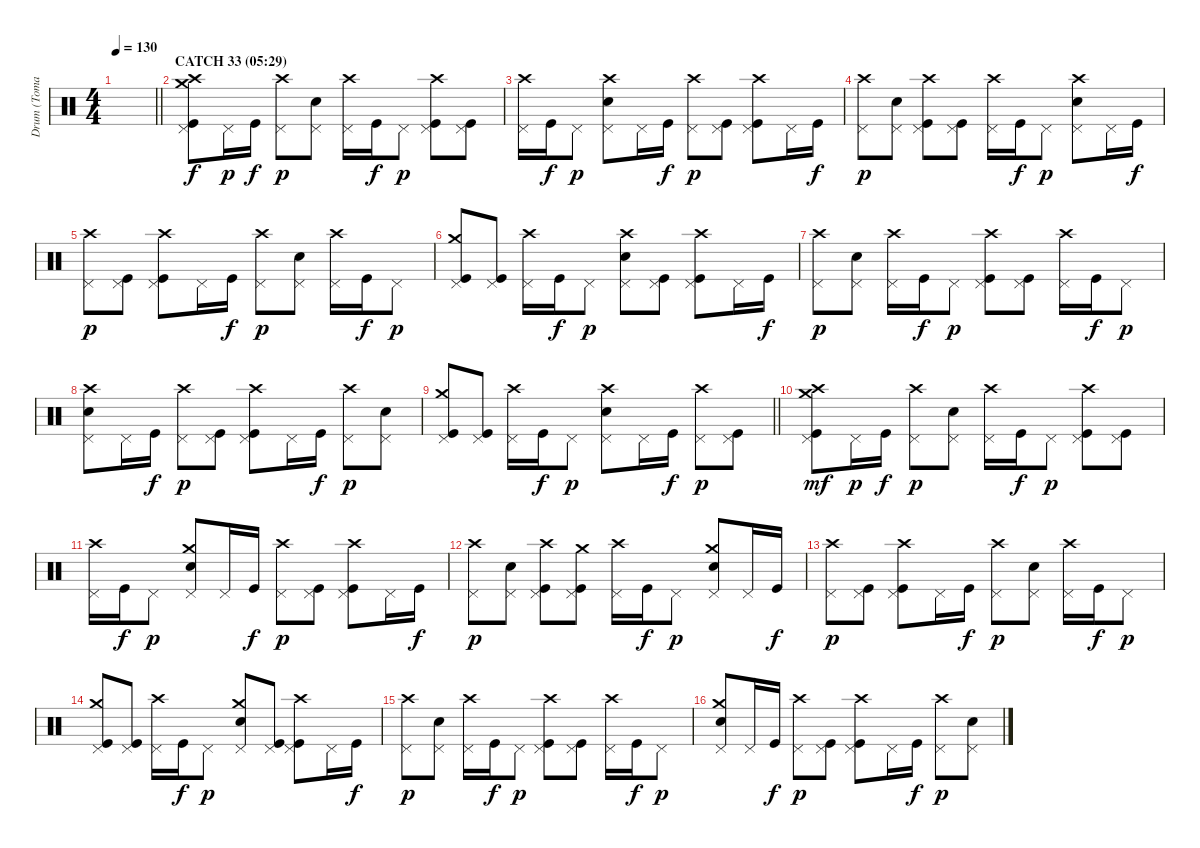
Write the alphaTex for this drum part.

\track ("Drum (Tomas Haake)" "Drum (Toma") {instrument percussion}
\staff {score}
\articulation defaults
\ts (4 4)
\tempo 130
\clef neutral
\barLineRight lightlight
\ks c
|
\section ("" "CATCH 33 (05:29)")
("Crash high (hit)" "Pedal Hi-Hat (hit)" "Crash medium (hit)" "Kick (hit)").8 "Pedal Hi-Hat (hit)".16{dy p} "Kick (hit)".16{dy f} ("Crash high (hit)" "Pedal Hi-Hat (hit)").8{dy p} ("Pedal Hi-Hat (hit)" "Electric Snare (hit)").8 ("Crash high (hit)" "Pedal Hi-Hat (hit)").16 "Kick (hit)".16{dy f} "Pedal Hi-Hat (hit)".8{dy p} ("Crash high (hit)" "Pedal Hi-Hat (hit)" "Kick (hit)").8 ("Pedal Hi-Hat (hit)" "Kick (hit)").8 |
("Crash high (hit)" "Pedal Hi-Hat (hit)").16 "Kick (hit)".16{dy f} "Pedal Hi-Hat (hit)".8{dy p} ("Crash high (hit)" "Pedal Hi-Hat (hit)" "Electric Snare (hit)").8 "Pedal Hi-Hat (hit)".16 "Kick (hit)".16{dy f} ("Crash high (hit)" "Pedal Hi-Hat (hit)").8{dy p} ("Pedal Hi-Hat (hit)" "Kick (hit)").8 ("Crash high (hit)" "Pedal Hi-Hat (hit)" "Kick (hit)").8 "Pedal Hi-Hat (hit)".16 "Kick (hit)".16{dy f} |
("Crash high (hit)" "Pedal Hi-Hat (hit)").8{dy p} ("Pedal Hi-Hat (hit)" "Electric Snare (hit)").8 ("Crash high (hit)" "Pedal Hi-Hat (hit)" "Kick (hit)").8 ("Pedal Hi-Hat (hit)" "Kick (hit)").8 ("Crash high (hit)" "Pedal Hi-Hat (hit)").16 "Kick (hit)".16{dy f} "Pedal Hi-Hat (hit)".8{dy p} ("Crash high (hit)" "Pedal Hi-Hat (hit)" "Electric Snare (hit)").8 "Pedal Hi-Hat (hit)".16 "Kick (hit)".16{dy f} |
("Crash high (hit)" "Pedal Hi-Hat (hit)").8{dy p} ("Pedal Hi-Hat (hit)" "Kick (hit)").8 ("Crash high (hit)" "Pedal Hi-Hat (hit)" "Kick (hit)").8 "Pedal Hi-Hat (hit)".16 "Kick (hit)".16{dy f} ("Crash high (hit)" "Pedal Hi-Hat (hit)").8{dy p} ("Pedal Hi-Hat (hit)" "Electric Snare (hit)").8 ("Crash high (hit)" "Pedal Hi-Hat (hit)").16 "Kick (hit)".16{dy f} "Pedal Hi-Hat (hit)".8{dy p} |
("Crash medium (hit)" "Pedal Hi-Hat (hit)" "Kick (hit)").8 ("Pedal Hi-Hat (hit)" "Kick (hit)").8 ("Crash high (hit)" "Pedal Hi-Hat (hit)").16 "Kick (hit)".16{dy f} "Pedal Hi-Hat (hit)".8{dy p} ("Crash high (hit)" "Pedal Hi-Hat (hit)" "Electric Snare (hit)").8 ("Pedal Hi-Hat (hit)" "Kick (hit)").8 ("Crash high (hit)" "Pedal Hi-Hat (hit)" "Kick (hit)").8 "Pedal Hi-Hat (hit)".16 "Kick (hit)".16{dy f} |
("Crash high (hit)" "Pedal Hi-Hat (hit)").8{dy p} ("Pedal Hi-Hat (hit)" "Electric Snare (hit)").8 ("Crash high (hit)" "Pedal Hi-Hat (hit)").16 "Kick (hit)".16{dy f} "Pedal Hi-Hat (hit)".8{dy p} ("Crash high (hit)" "Pedal Hi-Hat (hit)" "Kick (hit)").8 ("Pedal Hi-Hat (hit)" "Kick (hit)").8 ("Crash high (hit)" "Pedal Hi-Hat (hit)").16 "Kick (hit)".16{dy f} "Pedal Hi-Hat (hit)".8{dy p} |
("Crash high (hit)" "Pedal Hi-Hat (hit)" "Electric Snare (hit)").8 "Pedal Hi-Hat (hit)".16 "Kick (hit)".16{dy f} ("Crash high (hit)" "Pedal Hi-Hat (hit)").8{dy p} ("Pedal Hi-Hat (hit)" "Kick (hit)").8 ("Crash high (hit)" "Pedal Hi-Hat (hit)" "Kick (hit)").8 "Pedal Hi-Hat (hit)".16 "Kick (hit)".16{dy f} ("Crash high (hit)" "Pedal Hi-Hat (hit)").8{dy p} ("Pedal Hi-Hat (hit)" "Electric Snare (hit)").8 |
\barLineRight lightlight
("Crash medium (hit)" "Pedal Hi-Hat (hit)" "Kick (hit)").8 ("Pedal Hi-Hat (hit)" "Kick (hit)").8 ("Crash high (hit)" "Pedal Hi-Hat (hit)").16 "Kick (hit)".16{dy f} "Pedal Hi-Hat (hit)".8{dy p} ("Crash high (hit)" "Pedal Hi-Hat (hit)" "Electric Snare (hit)").8 "Pedal Hi-Hat (hit)".16 "Kick (hit)".16{dy f} ("Crash high (hit)" "Pedal Hi-Hat (hit)").8{dy p} ("Pedal Hi-Hat (hit)" "Kick (hit)").8 |
("Crash high (hit)" "Pedal Hi-Hat (hit)" "Crash medium (hit)" "Kick (hit)").8{dy mf} "Pedal Hi-Hat (hit)".16{dy p} "Kick (hit)".16{dy f} ("Crash high (hit)" "Pedal Hi-Hat (hit)").8{dy p} ("Pedal Hi-Hat (hit)" "Electric Snare (hit)").8 ("Crash high (hit)" "Pedal Hi-Hat (hit)").16 "Kick (hit)".16{dy f} "Pedal Hi-Hat (hit)".8{dy p} ("Crash high (hit)" "Pedal Hi-Hat (hit)" "Kick (hit)").8 ("Pedal Hi-Hat (hit)" "Kick (hit)").8 |
("Crash high (hit)" "Pedal Hi-Hat (hit)").16 "Kick (hit)".16{dy f} "Pedal Hi-Hat (hit)".8{dy p} ("Crash medium (hit)" "Pedal Hi-Hat (hit)" "Electric Snare (hit)").8 "Pedal Hi-Hat (hit)".16 "Kick (hit)".16{dy f} ("Crash high (hit)" "Pedal Hi-Hat (hit)").8{dy p} ("Pedal Hi-Hat (hit)" "Kick (hit)").8 ("Crash high (hit)" "Pedal Hi-Hat (hit)" "Kick (hit)").8 "Pedal Hi-Hat (hit)".16 "Kick (hit)".16{dy f} |
("Crash high (hit)" "Pedal Hi-Hat (hit)").8{dy p} ("Pedal Hi-Hat (hit)" "Electric Snare (hit)").8 ("Crash high (hit)" "Pedal Hi-Hat (hit)" "Kick (hit)").8 ("Crash medium (hit)" "Pedal Hi-Hat (hit)" "Kick (hit)").8 ("Crash high (hit)" "Pedal Hi-Hat (hit)").16 "Kick (hit)".16{dy f} "Pedal Hi-Hat (hit)".8{dy p} ("Crash medium (hit)" "Pedal Hi-Hat (hit)" "Electric Snare (hit)").8 "Pedal Hi-Hat (hit)".16 "Kick (hit)".16{dy f} |
("Crash high (hit)" "Pedal Hi-Hat (hit)").8{dy p} ("Pedal Hi-Hat (hit)" "Kick (hit)").8 ("Crash high (hit)" "Pedal Hi-Hat (hit)" "Kick (hit)").8 "Pedal Hi-Hat (hit)".16 "Kick (hit)".16{dy f} ("Crash high (hit)" "Pedal Hi-Hat (hit)").8{dy p} ("Pedal Hi-Hat (hit)" "Electric Snare (hit)").8 ("Crash high (hit)" "Pedal Hi-Hat (hit)").16 "Kick (hit)".16{dy f} "Pedal Hi-Hat (hit)".8{dy p} |
("Crash medium (hit)" "Pedal Hi-Hat (hit)" "Kick (hit)").8 ("Pedal Hi-Hat (hit)" "Kick (hit)").8 ("Crash high (hit)" "Pedal Hi-Hat (hit)").16 "Kick (hit)".16{dy f} "Pedal Hi-Hat (hit)".8{dy p} ("Crash medium (hit)" "Pedal Hi-Hat (hit)" "Electric Snare (hit)").8 ("Pedal Hi-Hat (hit)" "Kick (hit)").8 ("Crash high (hit)" "Pedal Hi-Hat (hit)" "Kick (hit)").8 "Pedal Hi-Hat (hit)".16 "Kick (hit)".16{dy f} |
("Crash high (hit)" "Pedal Hi-Hat (hit)").8{dy p} ("Pedal Hi-Hat (hit)" "Electric Snare (hit)").8 ("Crash high (hit)" "Pedal Hi-Hat (hit)").16 "Kick (hit)".16{dy f} "Pedal Hi-Hat (hit)".8{dy p} ("Crash high (hit)" "Pedal Hi-Hat (hit)" "Kick (hit)").8 ("Pedal Hi-Hat (hit)" "Kick (hit)").8 ("Crash high (hit)" "Pedal Hi-Hat (hit)").16 "Kick (hit)".16{dy f} "Pedal Hi-Hat (hit)".8{dy p} |
("Crash medium (hit)" "Pedal Hi-Hat (hit)" "Electric Snare (hit)").8 "Pedal Hi-Hat (hit)".16 "Kick (hit)".16{dy f} ("Crash high (hit)" "Pedal Hi-Hat (hit)").8{dy p} ("Pedal Hi-Hat (hit)" "Kick (hit)").8 ("Crash high (hit)" "Pedal Hi-Hat (hit)" "Kick (hit)").8 "Pedal Hi-Hat (hit)".16 "Kick (hit)".16{dy f} ("Crash high (hit)" "Pedal Hi-Hat (hit)").8{dy p} ("Pedal Hi-Hat (hit)" "Electric Snare (hit)").8
